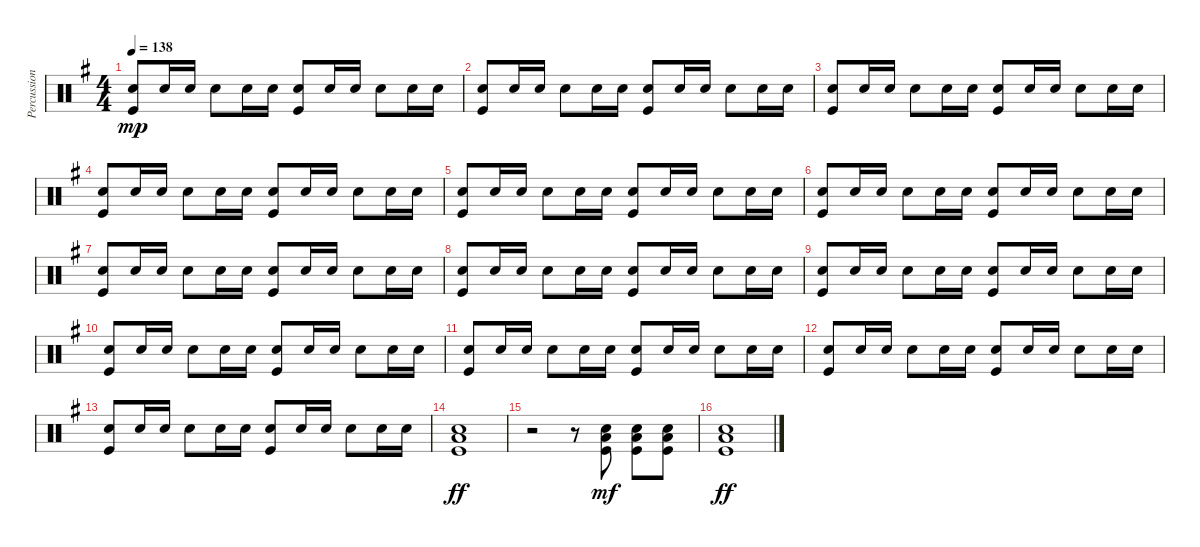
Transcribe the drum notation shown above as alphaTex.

\track ("Percussion" "Percussion") {instrument percussion}
\staff {score}
\articulation defaults
\ts (4 4)
\tempo 138
\clef neutral
\ks g
("Snare (hit) 2" "Kick (hit)").8{dy mp} "Snare (hit) 2".16 "Snare (hit) 2".16 "Snare (hit) 2".8 "Snare (hit) 2".16 "Snare (hit) 2".16 ("Snare (hit) 2" "Kick (hit)").8 "Snare (hit) 2".16 "Snare (hit) 2".16 "Snare (hit) 2".8 "Snare (hit) 2".16 "Snare (hit) 2".16 |
("Snare (hit) 2" "Kick (hit)").8 "Snare (hit) 2".16 "Snare (hit) 2".16 "Snare (hit) 2".8 "Snare (hit) 2".16 "Snare (hit) 2".16 ("Snare (hit) 2" "Kick (hit)").8 "Snare (hit) 2".16 "Snare (hit) 2".16 "Snare (hit) 2".8 "Snare (hit) 2".16 "Snare (hit) 2".16 |
("Snare (hit) 2" "Kick (hit)").8 "Snare (hit) 2".16 "Snare (hit) 2".16 "Snare (hit) 2".8 "Snare (hit) 2".16 "Snare (hit) 2".16 ("Snare (hit) 2" "Kick (hit)").8 "Snare (hit) 2".16 "Snare (hit) 2".16 "Snare (hit) 2".8 "Snare (hit) 2".16 "Snare (hit) 2".16 |
("Snare (hit) 2" "Kick (hit)").8 "Snare (hit) 2".16 "Snare (hit) 2".16 "Snare (hit) 2".8 "Snare (hit) 2".16 "Snare (hit) 2".16 ("Snare (hit) 2" "Kick (hit)").8 "Snare (hit) 2".16 "Snare (hit) 2".16 "Snare (hit) 2".8 "Snare (hit) 2".16 "Snare (hit) 2".16 |
("Snare (hit) 2" "Kick (hit)").8 "Snare (hit) 2".16 "Snare (hit) 2".16 "Snare (hit) 2".8 "Snare (hit) 2".16 "Snare (hit) 2".16 ("Snare (hit) 2" "Kick (hit)").8 "Snare (hit) 2".16 "Snare (hit) 2".16 "Snare (hit) 2".8 "Snare (hit) 2".16 "Snare (hit) 2".16 |
("Snare (hit) 2" "Kick (hit)").8 "Snare (hit) 2".16 "Snare (hit) 2".16 "Snare (hit) 2".8 "Snare (hit) 2".16 "Snare (hit) 2".16 ("Snare (hit) 2" "Kick (hit)").8 "Snare (hit) 2".16 "Snare (hit) 2".16 "Snare (hit) 2".8 "Snare (hit) 2".16 "Snare (hit) 2".16 |
("Snare (hit) 2" "Kick (hit)").8 "Snare (hit) 2".16 "Snare (hit) 2".16 "Snare (hit) 2".8 "Snare (hit) 2".16 "Snare (hit) 2".16 ("Snare (hit) 2" "Kick (hit)").8 "Snare (hit) 2".16 "Snare (hit) 2".16 "Snare (hit) 2".8 "Snare (hit) 2".16 "Snare (hit) 2".16 |
("Snare (hit) 2" "Kick (hit)").8 "Snare (hit) 2".16 "Snare (hit) 2".16 "Snare (hit) 2".8 "Snare (hit) 2".16 "Snare (hit) 2".16 ("Snare (hit) 2" "Kick (hit)").8 "Snare (hit) 2".16 "Snare (hit) 2".16 "Snare (hit) 2".8 "Snare (hit) 2".16 "Snare (hit) 2".16 |
("Snare (hit) 2" "Kick (hit)").8 "Snare (hit) 2".16 "Snare (hit) 2".16 "Snare (hit) 2".8 "Snare (hit) 2".16 "Snare (hit) 2".16 ("Snare (hit) 2" "Kick (hit)").8 "Snare (hit) 2".16 "Snare (hit) 2".16 "Snare (hit) 2".8 "Snare (hit) 2".16 "Snare (hit) 2".16 |
("Snare (hit) 2" "Kick (hit)").8 "Snare (hit) 2".16 "Snare (hit) 2".16 "Snare (hit) 2".8 "Snare (hit) 2".16 "Snare (hit) 2".16 ("Snare (hit) 2" "Kick (hit)").8 "Snare (hit) 2".16 "Snare (hit) 2".16 "Snare (hit) 2".8 "Snare (hit) 2".16 "Snare (hit) 2".16 |
("Snare (hit) 2" "Kick (hit)").8 "Snare (hit) 2".16 "Snare (hit) 2".16 "Snare (hit) 2".8 "Snare (hit) 2".16 "Snare (hit) 2".16 ("Snare (hit) 2" "Kick (hit)").8 "Snare (hit) 2".16 "Snare (hit) 2".16 "Snare (hit) 2".8 "Snare (hit) 2".16 "Snare (hit) 2".16 |
("Snare (hit) 2" "Kick (hit)").8 "Snare (hit) 2".16 "Snare (hit) 2".16 "Snare (hit) 2".8 "Snare (hit) 2".16 "Snare (hit) 2".16 ("Snare (hit) 2" "Kick (hit)").8 "Snare (hit) 2".16 "Snare (hit) 2".16 "Snare (hit) 2".8 "Snare (hit) 2".16 "Snare (hit) 2".16 |
("Snare (hit) 2" "Kick (hit)").8 "Snare (hit) 2".16 "Snare (hit) 2".16 "Snare (hit) 2".8 "Snare (hit) 2".16 "Snare (hit) 2".16 ("Snare (hit) 2" "Kick (hit)").8 "Snare (hit) 2".16 "Snare (hit) 2".16 "Snare (hit) 2".8 "Snare (hit) 2".16 "Snare (hit) 2".16 |
("Snare (hit) 2" "Low Floor Tom (hit)" "Kick (hit)").1{dy ff} |
r.2 r.8 ("Snare (hit) 2" "Low Floor Tom (hit)" "Kick (hit)").8{dy mf} ("Snare (hit) 2" "Low Floor Tom (hit)" "Kick (hit)").8 ("Snare (hit) 2" "Low Floor Tom (hit)" "Kick (hit)").8 |
("Snare (hit) 2" "Low Floor Tom (hit)" "Kick (hit)").1{dy ff}
